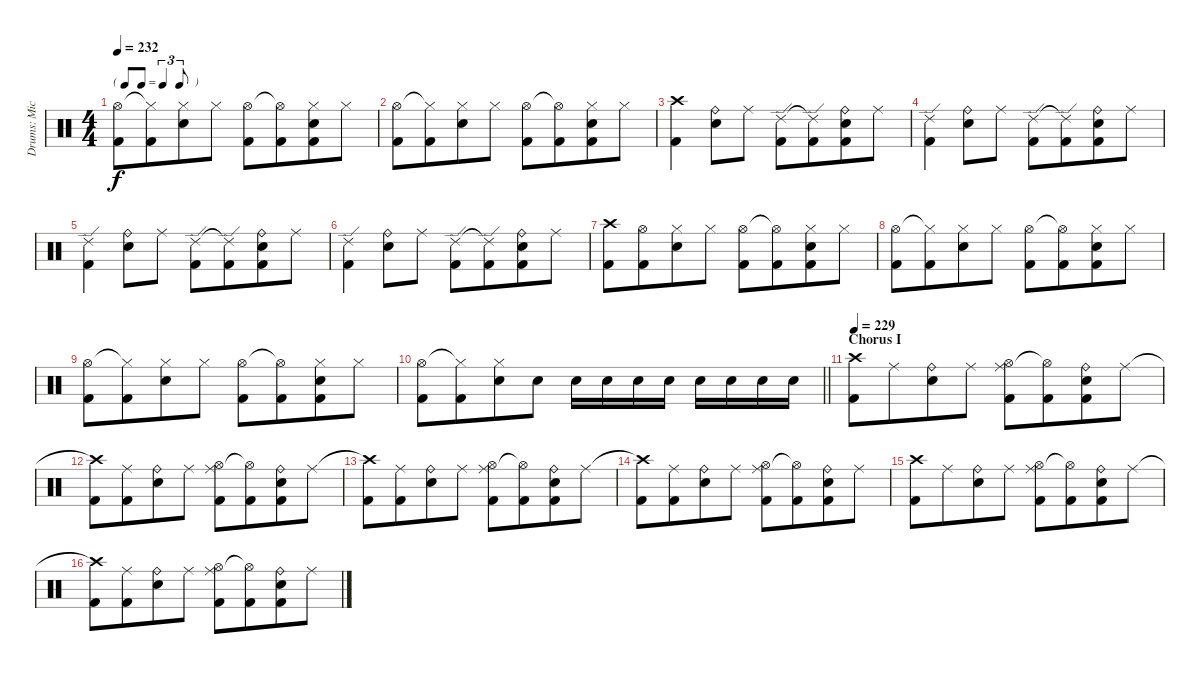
\track ("Drums: Mick" "Drums: Mic") {instrument percussion}
\staff {score}
\articulation defaults
\ts (4 4)
\tf triplet8th
\tempo 232
\clef neutral
\ks c
("Hi-Hat (open)" "Kick (hit) 2").8{dy f} ("Hi-Hat (closed)"{t} "Kick (hit) 2").8{beam merge} ("Hi-Hat (closed)" "Snare (hit) 2").8 "Hi-Hat (closed)".8 ("Hi-Hat (open)" "Kick (hit) 2").8 ("Hi-Hat (open)"{t} "Kick (hit) 2").8{beam merge} ("Hi-Hat (closed)" "Snare (hit) 2" "Kick (hit) 2").8 "Hi-Hat (closed)".8 |
("Hi-Hat (open)" "Kick (hit) 2").8 ("Hi-Hat (closed)"{t} "Kick (hit) 2").8{beam merge} ("Hi-Hat (closed)" "Snare (hit) 2").8 "Hi-Hat (closed)".8 ("Hi-Hat (open)" "Kick (hit) 2").8 ("Hi-Hat (open)"{t} "Kick (hit) 2").8{beam merge} ("Hi-Hat (closed)" "Snare (hit) 2" "Kick (hit) 2").8 "Hi-Hat (closed)".8 |
("Crash high (hit)" "Kick (hit) 2").4{beam merge} ("Ride (bell)" "Snare (hit) 2").8 "Ride (middle)".8 ("Ride (edge) 2" "Kick (hit) 2").8 ("Ride (edge) 2"{t} "Kick (hit) 2").8{beam merge} ("Ride (bell)" "Snare (hit) 2" "Kick (hit) 2").8 "Ride (middle)".8 |
("Ride (edge) 2" "Kick (hit) 2").4{beam merge} ("Ride (bell)" "Snare (hit) 2").8 "Ride (middle)".8 ("Ride (edge) 2" "Kick (hit) 2").8 ("Ride (edge) 2"{t} "Kick (hit) 2").8{beam merge} ("Ride (bell)" "Snare (hit) 2" "Kick (hit) 2").8 "Ride (middle)".8 |
("Ride (edge) 2" "Kick (hit) 2").4{beam merge} ("Ride (bell)" "Snare (hit) 2").8 "Ride (middle)".8 ("Ride (edge) 2" "Kick (hit) 2").8 ("Ride (edge) 2"{t} "Kick (hit) 2").8{beam merge} ("Ride (bell)" "Snare (hit) 2" "Kick (hit) 2").8 "Ride (middle)".8 |
("Ride (edge) 2" "Kick (hit) 2").4{beam merge} ("Ride (bell)" "Snare (hit) 2").8 "Ride (middle)".8 ("Ride (edge) 2" "Kick (hit) 2").8 ("Ride (edge) 2"{t} "Kick (hit) 2").8{beam merge} ("Ride (bell)" "Snare (hit) 2" "Kick (hit) 2").8 "Ride (middle)".8 |
("Crash high (hit)" "Kick (hit) 2").8 ("Hi-Hat (open)" "Kick (hit) 2").8{beam merge} ("Hi-Hat (closed)" "Snare (hit) 2").8 "Hi-Hat (closed)".8 ("Hi-Hat (open)" "Kick (hit) 2").8 ("Hi-Hat (open)"{t} "Kick (hit) 2").8{beam merge} ("Hi-Hat (closed)" "Snare (hit) 2" "Kick (hit) 2").8 "Hi-Hat (closed)".8 |
("Hi-Hat (open)" "Kick (hit) 2").8 ("Hi-Hat (closed)"{t} "Kick (hit) 2").8{beam merge} ("Hi-Hat (closed)" "Snare (hit) 2").8 "Hi-Hat (closed)".8 ("Hi-Hat (open)" "Kick (hit) 2").8 ("Hi-Hat (open)"{t} "Kick (hit) 2").8{beam merge} ("Hi-Hat (closed)" "Snare (hit) 2" "Kick (hit) 2").8 "Hi-Hat (closed)".8 |
("Hi-Hat (open)" "Kick (hit) 2").8 ("Hi-Hat (closed)"{t} "Kick (hit) 2").8{beam merge} ("Hi-Hat (closed)" "Snare (hit) 2").8 "Hi-Hat (closed)".8 ("Hi-Hat (open)" "Kick (hit) 2").8 ("Hi-Hat (open)"{t} "Kick (hit) 2").8{beam merge} ("Hi-Hat (closed)" "Snare (hit) 2" "Kick (hit) 2").8 "Hi-Hat (closed)".8 |
\barLineRight lightlight
("Hi-Hat (open)" "Kick (hit) 2").8 ("Hi-Hat (closed)"{t} "Kick (hit) 2").8{beam merge} ("Hi-Hat (closed)" "Snare (hit) 2").8 "Snare (hit) 2".8 "Snare (hit) 2".16 "Snare (hit) 2".16 "Snare (hit) 2".16 "Snare (hit) 2".16 "Snare (hit) 2".16 "Snare (hit) 2".16 "Snare (hit) 2".16 "Snare (hit) 2".16 |
\section ("" "Chorus I")
\tempo 229
("Crash high (hit)" "Kick (hit) 2").8 "Ride (middle)".8{beam merge} ("Ride (bell)" "Snare (hit) 2").8 "Ride (middle)".8 ("Ride (middle)" "Hi-Hat (open)" "Kick (hit) 2").8 ("Hi-Hat (open)"{t} "Kick (hit) 2").8{beam merge} ("Ride (bell)" "Snare (hit) 2" "Kick (hit) 2").8 "Ride (middle)".8 |
("Crash high (hit)"{t} "Kick (hit) 2").8 ("Ride (middle)" "Kick (hit) 2").8{beam merge} ("Ride (bell)" "Snare (hit) 2").8 "Ride (middle)".8 ("Ride (middle)" "Hi-Hat (open)" "Kick (hit) 2").8 ("Hi-Hat (open)"{t} "Kick (hit) 2").8{beam merge} ("Ride (bell)" "Snare (hit) 2" "Kick (hit) 2").8 "Ride (middle)".8 |
("Crash high (hit)"{t} "Kick (hit) 2").8 ("Ride (middle)" "Kick (hit) 2").8{beam merge} ("Ride (bell)" "Snare (hit) 2").8 "Ride (middle)".8 ("Ride (middle)" "Hi-Hat (open)" "Kick (hit) 2").8 ("Hi-Hat (open)"{t} "Kick (hit) 2").8{beam merge} ("Ride (bell)" "Snare (hit) 2" "Kick (hit) 2").8 "Ride (middle)".8 |
("Crash high (hit)"{t} "Kick (hit) 2").8 ("Ride (middle)" "Kick (hit) 2").8{beam merge} ("Ride (bell)" "Snare (hit) 2").8 "Ride (middle)".8 ("Ride (middle)" "Hi-Hat (open)" "Kick (hit) 2").8 ("Hi-Hat (open)"{t} "Kick (hit) 2").8{beam merge} ("Ride (bell)" "Snare (hit) 2" "Kick (hit) 2").8 "Ride (middle)".8 |
("Crash high (hit)" "Kick (hit) 2").8 "Ride (middle)".8{beam merge} ("Ride (bell)" "Snare (hit) 2").8 "Ride (middle)".8 ("Ride (middle)" "Hi-Hat (open)" "Kick (hit) 2").8 ("Hi-Hat (open)"{t} "Kick (hit) 2").8{beam merge} ("Ride (bell)" "Snare (hit) 2" "Kick (hit) 2").8 "Ride (middle)".8 |
("Crash high (hit)"{t} "Kick (hit) 2").8 ("Ride (middle)" "Kick (hit) 2").8{beam merge} ("Ride (bell)" "Snare (hit) 2").8 "Ride (middle)".8 ("Ride (middle)" "Hi-Hat (open)" "Kick (hit) 2").8 ("Hi-Hat (open)"{t} "Kick (hit) 2").8{beam merge} ("Ride (bell)" "Snare (hit) 2" "Kick (hit) 2").8 "Ride (middle)".8
